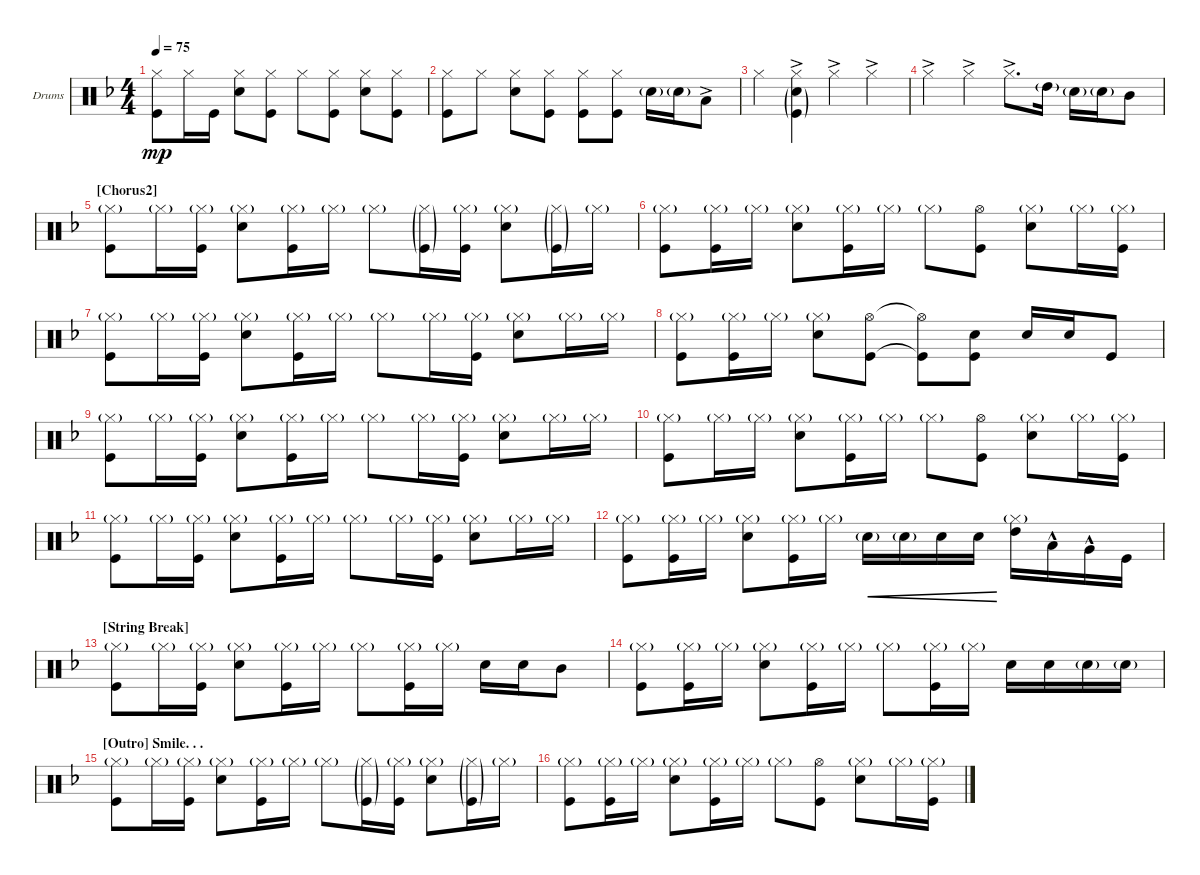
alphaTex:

\defaultSystemsLayout 4
\bracketExtendMode groupsimilarinstruments
\firstSystemTrackNameOrientation horizontal
\otherSystemsTrackNameOrientation horizontal
\track ("Drumkit" "Drums") {instrument percussion}
\staff {score}
\articulation defaults
\ts (4 4)
\tempo 75
\clef neutral
\ks dminor
("Hi-Hat (closed)" "Kick (hit)").8{dy mp} "Hi-Hat (closed)".16 "Kick (hit)".16 ("Hi-Hat (closed)" "Snare (hit) 2").8 ("Hi-Hat (closed)" "Kick (hit)").8 "Hi-Hat (closed)".8 ("Hi-Hat (closed)" "Kick (hit)").8 ("Hi-Hat (closed)" "Snare (hit) 2").8 ("Hi-Hat (closed)" "Kick (hit)").8 |
("Hi-Hat (closed)" "Kick (hit)").8 "Hi-Hat (closed)".8 ("Hi-Hat (closed)" "Snare (hit) 2").8 ("Hi-Hat (closed)" "Kick (hit)").8 ("Hi-Hat (closed)" "Kick (hit)").8 ("Hi-Hat (closed)" "Kick (hit)").8 "Snare (hit) 2"{g}.16 "Snare (hit) 2"{g}.16 "Low Tom (hit)"{ac}.8 |
"Hi-Hat (closed)".4 ("Hi-Hat (closed)"{ac} "Kick (hit)"{g} "Snare (hit) 2"{g}).4 "Hi-Hat (closed)"{ac}.4 "Hi-Hat (closed)"{ac}.4 |
"Hi-Hat (closed)"{ac}.4 "Hi-Hat (closed)"{ac}.4 "Hi-Hat (closed)"{ac}.8{d} "High Tom (hit)"{g}.16 "Snare (hit) 2"{g}.16 "Snare (hit) 2"{g}.16 "Mid Tom (hit)".8 |
\section ("" "[Chorus2]")
("Hi-Hat (closed)"{g} "Kick (hit)").8 "Hi-Hat (closed)"{g}.16 ("Hi-Hat (closed)"{g} "Kick (hit)").16 ("Hi-Hat (closed)"{g} "Snare (hit) 2").8 ("Hi-Hat (closed)"{g} "Kick (hit)").16 "Hi-Hat (closed)"{g}.16 "Hi-Hat (closed)"{g}.8 ("Hi-Hat (closed)"{g} "Kick (hit)"{g}).16 ("Hi-Hat (closed)"{g} "Kick (hit)").16 ("Hi-Hat (closed)"{g} "Snare (hit) 2").8 ("Hi-Hat (closed)"{g} "Kick (hit)"{g}).16 "Hi-Hat (closed)"{g}.16 |
("Hi-Hat (closed)"{g} "Kick (hit)").8 ("Hi-Hat (closed)"{g} "Kick (hit)").16 "Hi-Hat (closed)"{g}.16 ("Hi-Hat (closed)"{g} "Snare (hit) 2").8 ("Hi-Hat (closed)"{g} "Kick (hit)").16 "Hi-Hat (closed)"{g}.16 "Hi-Hat (closed)"{g}.8 ("Hi-Hat (open)" "Kick (hit)").8 ("Hi-Hat (closed)"{g} "Snare (hit) 2").8 "Hi-Hat (closed)"{g}.16 ("Hi-Hat (closed)"{g} "Kick (hit)").16 |
("Hi-Hat (closed)"{g} "Kick (hit)").8 "Hi-Hat (closed)"{g}.16 ("Hi-Hat (closed)"{g} "Kick (hit)").16 ("Hi-Hat (closed)"{g} "Snare (hit) 2").8 ("Hi-Hat (closed)"{g} "Kick (hit)").16 "Hi-Hat (closed)"{g}.16 "Hi-Hat (closed)"{g}.8 "Hi-Hat (closed)"{g}.16 ("Hi-Hat (closed)"{g} "Kick (hit)").16 ("Hi-Hat (closed)"{g} "Snare (hit) 2").8 "Hi-Hat (closed)"{g}.16 "Hi-Hat (closed)"{g}.16 |
("Hi-Hat (closed)"{g} "Kick (hit)").8 ("Hi-Hat (closed)"{g} "Kick (hit)").16 "Hi-Hat (closed)"{g}.16 ("Hi-Hat (closed)"{g} "Snare (hit) 2").8 ("Hi-Hat (open)" "Kick (hit)").8 ("Hi-Hat (open)"{t} "Kick (hit)"{t}).8 ("Kick (hit)" "Snare (hit) 2").8 "Snare (hit) 2".16 "Snare (hit) 2".16 "Kick (hit)".8 |
("Hi-Hat (closed)"{g} "Kick (hit)").8 "Hi-Hat (closed)"{g}.16 ("Hi-Hat (closed)"{g} "Kick (hit)").16 ("Hi-Hat (closed)"{g} "Snare (hit) 2").8 ("Hi-Hat (closed)"{g} "Kick (hit)").16 "Hi-Hat (closed)"{g}.16 "Hi-Hat (closed)"{g}.8 "Hi-Hat (closed)"{g}.16 ("Hi-Hat (closed)"{g} "Kick (hit)").16 ("Hi-Hat (closed)"{g} "Snare (hit) 2").8 "Hi-Hat (closed)"{g}.16 "Hi-Hat (closed)"{g}.16 |
("Hi-Hat (closed)"{g} "Kick (hit)").8 "Hi-Hat (closed)"{g}.16 "Hi-Hat (closed)"{g}.16 ("Hi-Hat (closed)"{g} "Snare (hit) 2").8 ("Hi-Hat (closed)"{g} "Kick (hit)").16 "Hi-Hat (closed)"{g}.16 "Hi-Hat (closed)"{g}.8 ("Hi-Hat (open)" "Kick (hit)").8 ("Hi-Hat (closed)"{g} "Snare (hit) 2").8 "Hi-Hat (closed)"{g}.16 ("Hi-Hat (closed)"{g} "Kick (hit)").16 |
("Hi-Hat (closed)"{g} "Kick (hit)").8 "Hi-Hat (closed)"{g}.16 ("Hi-Hat (closed)"{g} "Kick (hit)").16 ("Hi-Hat (closed)"{g} "Snare (hit) 2").8 ("Hi-Hat (closed)"{g} "Kick (hit)").16 "Hi-Hat (closed)"{g}.16 "Hi-Hat (closed)"{g}.8 "Hi-Hat (closed)"{g}.16 ("Hi-Hat (closed)"{g} "Kick (hit)").16 ("Hi-Hat (closed)"{g} "Snare (hit) 2").8 "Hi-Hat (closed)"{g}.16 "Hi-Hat (closed)"{g}.16 |
("Hi-Hat (closed)"{g} "Kick (hit)").8 ("Hi-Hat (closed)"{g} "Kick (hit)").16 "Hi-Hat (closed)"{g}.16 ("Hi-Hat (closed)"{g} "Snare (hit) 2").8 ("Hi-Hat (closed)"{g} "Kick (hit)").16 "Hi-Hat (closed)"{g}.16 "Snare (hit) 2"{g}.16{cre} "Snare (hit) 2"{g}.16{cre} "Snare (hit) 2".16{cre} "Snare (hit) 2".16{cre} ("High Tom (hit)" "Hi-Hat (closed)"{g}).16 "Low Tom (hit)"{hac}.16 "Very Low Tom (hit)"{hac}.16 "Kick (hit)".16 |
\section ("" "[String Break]    ")
("Hi-Hat (closed)"{g} "Kick (hit)").8 "Hi-Hat (closed)"{g}.16 ("Hi-Hat (closed)"{g} "Kick (hit)").16 ("Hi-Hat (closed)"{g} "Snare (hit) 2").8 ("Hi-Hat (closed)"{g} "Kick (hit)").16 "Hi-Hat (closed)"{g}.16 "Hi-Hat (closed)"{g}.8 ("Hi-Hat (closed)"{g} "Kick (hit)").16 "Hi-Hat (closed)"{g}.16 "Snare (hit) 2".16 "Snare (hit) 2".16 "Mid Tom (hit)".8 |
("Hi-Hat (closed)"{g} "Kick (hit)").8 ("Hi-Hat (closed)"{g} "Kick (hit)").16 "Hi-Hat (closed)"{g}.16 ("Hi-Hat (closed)"{g} "Snare (hit) 2").8 ("Hi-Hat (closed)"{g} "Kick (hit)").16 "Hi-Hat (closed)"{g}.16 "Hi-Hat (closed)"{g}.8 ("Hi-Hat (closed)"{g} "Kick (hit)").16 "Hi-Hat (closed)"{g}.16 "Snare (hit) 2".16 "Snare (hit) 2".16 "Snare (hit) 2"{g}.16 "Snare (hit) 2"{g}.16 |
\section ("" "[Outro] Smile. . .")
("Hi-Hat (closed)"{g} "Kick (hit)").8 "Hi-Hat (closed)"{g}.16 ("Hi-Hat (closed)"{g} "Kick (hit)").16 ("Hi-Hat (closed)"{g} "Snare (hit) 2").8 ("Hi-Hat (closed)"{g} "Kick (hit)").16 "Hi-Hat (closed)"{g}.16 "Hi-Hat (closed)"{g}.8 ("Hi-Hat (closed)"{g} "Kick (hit)"{g}).16 ("Hi-Hat (closed)"{g} "Kick (hit)").16 ("Hi-Hat (closed)"{g} "Snare (hit) 2").8 ("Hi-Hat (closed)"{g} "Kick (hit)"{g}).16 "Hi-Hat (closed)"{g}.16 |
("Hi-Hat (closed)"{g} "Kick (hit)").8 ("Hi-Hat (closed)"{g} "Kick (hit)").16 "Hi-Hat (closed)"{g}.16 ("Hi-Hat (closed)"{g} "Snare (hit) 2").8 ("Hi-Hat (closed)"{g} "Kick (hit)").16 "Hi-Hat (closed)"{g}.16 "Hi-Hat (closed)"{g}.8 ("Hi-Hat (open)" "Kick (hit)").8 ("Hi-Hat (closed)"{g} "Snare (hit) 2").8 "Hi-Hat (closed)"{g}.16 ("Hi-Hat (closed)"{g} "Kick (hit)").16
